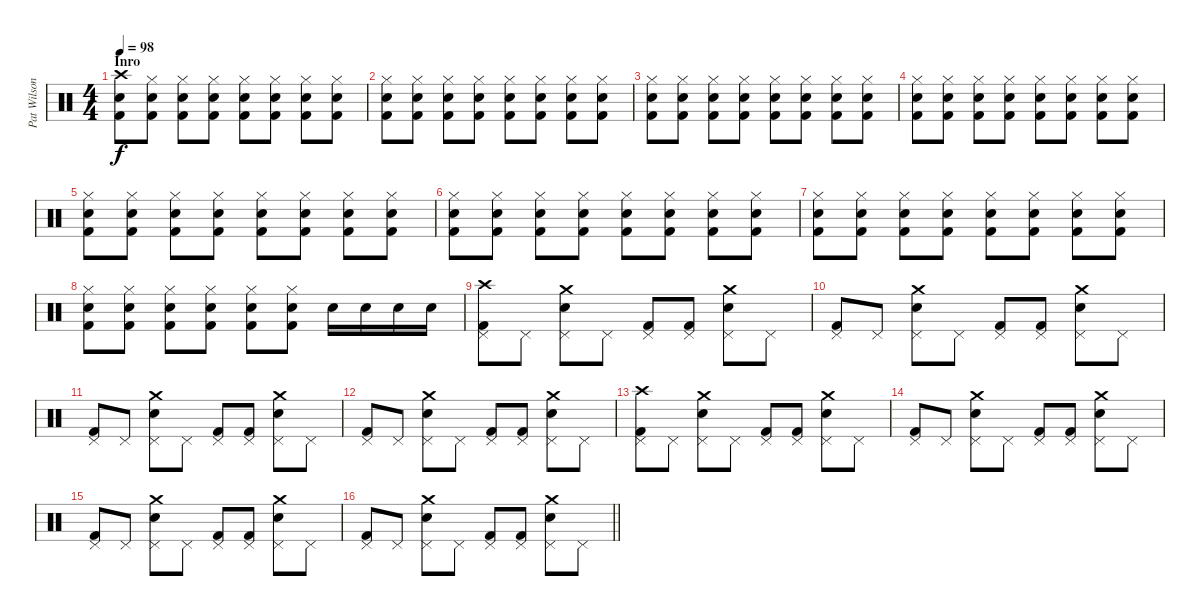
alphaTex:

\track ("Pat Wilson - Drums" "Pat Wilson") {instrument percussion}
\staff {score}
\articulation defaults
\ts (4 4)
\section ("" "Inro")
\tempo 98
\clef neutral
\ks c
("Crash high (hit)" "Electric Snare (hit)" "Kick (hit) 2").8{dy f} ("Hi-Hat (closed)" "Electric Snare (hit)" "Kick (hit) 2").8 ("Hi-Hat (closed)" "Electric Snare (hit)" "Kick (hit) 2").8 ("Hi-Hat (closed)" "Electric Snare (hit)" "Kick (hit) 2").8 ("Hi-Hat (closed)" "Electric Snare (hit)" "Kick (hit) 2").8 ("Hi-Hat (closed)" "Electric Snare (hit)" "Kick (hit) 2").8 ("Hi-Hat (closed)" "Electric Snare (hit)" "Kick (hit) 2").8 ("Hi-Hat (closed)" "Electric Snare (hit)" "Kick (hit) 2").8 |
("Hi-Hat (closed)" "Electric Snare (hit)" "Kick (hit) 2").8 ("Hi-Hat (closed)" "Electric Snare (hit)" "Kick (hit) 2").8 ("Hi-Hat (closed)" "Electric Snare (hit)" "Kick (hit) 2").8 ("Hi-Hat (closed)" "Electric Snare (hit)" "Kick (hit) 2").8 ("Hi-Hat (closed)" "Electric Snare (hit)" "Kick (hit) 2").8 ("Hi-Hat (closed)" "Electric Snare (hit)" "Kick (hit) 2").8 ("Hi-Hat (closed)" "Electric Snare (hit)" "Kick (hit) 2").8 ("Hi-Hat (closed)" "Electric Snare (hit)" "Kick (hit) 2").8 |
("Hi-Hat (closed)" "Electric Snare (hit)" "Kick (hit) 2").8 ("Hi-Hat (closed)" "Electric Snare (hit)" "Kick (hit) 2").8 ("Hi-Hat (closed)" "Electric Snare (hit)" "Kick (hit) 2").8 ("Hi-Hat (closed)" "Electric Snare (hit)" "Kick (hit) 2").8 ("Hi-Hat (closed)" "Electric Snare (hit)" "Kick (hit) 2").8 ("Hi-Hat (closed)" "Electric Snare (hit)" "Kick (hit) 2").8 ("Hi-Hat (closed)" "Electric Snare (hit)" "Kick (hit) 2").8 ("Hi-Hat (closed)" "Electric Snare (hit)" "Kick (hit) 2").8 |
("Hi-Hat (closed)" "Electric Snare (hit)" "Kick (hit) 2").8 ("Hi-Hat (closed)" "Electric Snare (hit)" "Kick (hit) 2").8 ("Hi-Hat (closed)" "Electric Snare (hit)" "Kick (hit) 2").8 ("Hi-Hat (closed)" "Electric Snare (hit)" "Kick (hit) 2").8 ("Hi-Hat (closed)" "Electric Snare (hit)" "Kick (hit) 2").8 ("Hi-Hat (closed)" "Electric Snare (hit)" "Kick (hit) 2").8 ("Hi-Hat (closed)" "Electric Snare (hit)" "Kick (hit) 2").8 ("Hi-Hat (closed)" "Electric Snare (hit)" "Kick (hit) 2").8 |
("Hi-Hat (closed)" "Electric Snare (hit)" "Kick (hit) 2").8 ("Hi-Hat (closed)" "Electric Snare (hit)" "Kick (hit) 2").8 ("Hi-Hat (closed)" "Electric Snare (hit)" "Kick (hit) 2").8 ("Hi-Hat (closed)" "Electric Snare (hit)" "Kick (hit) 2").8 ("Hi-Hat (closed)" "Electric Snare (hit)" "Kick (hit) 2").8 ("Hi-Hat (closed)" "Electric Snare (hit)" "Kick (hit) 2").8 ("Hi-Hat (closed)" "Electric Snare (hit)" "Kick (hit) 2").8 ("Hi-Hat (closed)" "Electric Snare (hit)" "Kick (hit) 2").8 |
("Hi-Hat (closed)" "Electric Snare (hit)" "Kick (hit) 2").8 ("Hi-Hat (closed)" "Electric Snare (hit)" "Kick (hit) 2").8 ("Hi-Hat (closed)" "Electric Snare (hit)" "Kick (hit) 2").8 ("Hi-Hat (closed)" "Electric Snare (hit)" "Kick (hit) 2").8 ("Hi-Hat (closed)" "Electric Snare (hit)" "Kick (hit) 2").8 ("Hi-Hat (closed)" "Electric Snare (hit)" "Kick (hit) 2").8 ("Hi-Hat (closed)" "Electric Snare (hit)" "Kick (hit) 2").8 ("Hi-Hat (closed)" "Electric Snare (hit)" "Kick (hit) 2").8 |
("Hi-Hat (closed)" "Electric Snare (hit)" "Kick (hit) 2").8 ("Hi-Hat (closed)" "Electric Snare (hit)" "Kick (hit) 2").8 ("Hi-Hat (closed)" "Electric Snare (hit)" "Kick (hit) 2").8 ("Hi-Hat (closed)" "Electric Snare (hit)" "Kick (hit) 2").8 ("Hi-Hat (closed)" "Electric Snare (hit)" "Kick (hit) 2").8 ("Hi-Hat (closed)" "Electric Snare (hit)" "Kick (hit) 2").8 ("Hi-Hat (closed)" "Electric Snare (hit)" "Kick (hit) 2").8 ("Hi-Hat (closed)" "Electric Snare (hit)" "Kick (hit) 2").8 |
("Hi-Hat (closed)" "Electric Snare (hit)" "Kick (hit) 2").8 ("Hi-Hat (closed)" "Electric Snare (hit)" "Kick (hit) 2").8 ("Hi-Hat (closed)" "Electric Snare (hit)" "Kick (hit) 2").8 ("Hi-Hat (closed)" "Electric Snare (hit)" "Kick (hit) 2").8 ("Hi-Hat (closed)" "Electric Snare (hit)" "Kick (hit) 2").8 ("Hi-Hat (closed)" "Electric Snare (hit)" "Kick (hit) 2").8 "Electric Snare (hit)".16 "Electric Snare (hit)".16 "Electric Snare (hit)".16 "Electric Snare (hit)".16 |
("Crash high (hit)" "Pedal Hi-Hat (hit)" "Kick (hit) 2").8 "Pedal Hi-Hat (hit)".8 ("Crash medium (hit)" "Pedal Hi-Hat (hit)" "Electric Snare (hit)").8 "Pedal Hi-Hat (hit)".8 ("Pedal Hi-Hat (hit)" "Kick (hit) 2").8 ("Pedal Hi-Hat (hit)" "Kick (hit) 2").8 ("Crash medium (hit)" "Pedal Hi-Hat (hit)" "Electric Snare (hit)").8 "Pedal Hi-Hat (hit)".8 |
("Pedal Hi-Hat (hit)" "Kick (hit) 2").8 "Pedal Hi-Hat (hit)".8 ("Crash medium (hit)" "Pedal Hi-Hat (hit)" "Electric Snare (hit)").8 "Pedal Hi-Hat (hit)".8 ("Pedal Hi-Hat (hit)" "Kick (hit) 2").8 ("Pedal Hi-Hat (hit)" "Kick (hit) 2").8 ("Crash medium (hit)" "Pedal Hi-Hat (hit)" "Electric Snare (hit)").8 "Pedal Hi-Hat (hit)".8 |
("Pedal Hi-Hat (hit)" "Kick (hit) 2").8 "Pedal Hi-Hat (hit)".8 ("Crash medium (hit)" "Pedal Hi-Hat (hit)" "Electric Snare (hit)").8 "Pedal Hi-Hat (hit)".8 ("Pedal Hi-Hat (hit)" "Kick (hit) 2").8 ("Pedal Hi-Hat (hit)" "Kick (hit) 2").8 ("Crash medium (hit)" "Pedal Hi-Hat (hit)" "Electric Snare (hit)").8 "Pedal Hi-Hat (hit)".8 |
("Pedal Hi-Hat (hit)" "Kick (hit) 2").8 "Pedal Hi-Hat (hit)".8 ("Crash medium (hit)" "Pedal Hi-Hat (hit)" "Electric Snare (hit)").8 "Pedal Hi-Hat (hit)".8 ("Pedal Hi-Hat (hit)" "Kick (hit) 2").8 ("Pedal Hi-Hat (hit)" "Kick (hit) 2").8 ("Crash medium (hit)" "Pedal Hi-Hat (hit)" "Electric Snare (hit)").8 "Pedal Hi-Hat (hit)".8 |
("Crash high (hit)" "Pedal Hi-Hat (hit)" "Kick (hit) 2").8 "Pedal Hi-Hat (hit)".8 ("Crash medium (hit)" "Pedal Hi-Hat (hit)" "Electric Snare (hit)").8 "Pedal Hi-Hat (hit)".8 ("Pedal Hi-Hat (hit)" "Kick (hit) 2").8 ("Pedal Hi-Hat (hit)" "Kick (hit) 2").8 ("Crash medium (hit)" "Pedal Hi-Hat (hit)" "Electric Snare (hit)").8 "Pedal Hi-Hat (hit)".8 |
("Pedal Hi-Hat (hit)" "Kick (hit) 2").8 "Pedal Hi-Hat (hit)".8 ("Crash medium (hit)" "Pedal Hi-Hat (hit)" "Electric Snare (hit)").8 "Pedal Hi-Hat (hit)".8 ("Pedal Hi-Hat (hit)" "Kick (hit) 2").8 ("Pedal Hi-Hat (hit)" "Kick (hit) 2").8 ("Crash medium (hit)" "Pedal Hi-Hat (hit)" "Electric Snare (hit)").8 "Pedal Hi-Hat (hit)".8 |
("Pedal Hi-Hat (hit)" "Kick (hit) 2").8 "Pedal Hi-Hat (hit)".8 ("Crash medium (hit)" "Pedal Hi-Hat (hit)" "Electric Snare (hit)").8 "Pedal Hi-Hat (hit)".8 ("Pedal Hi-Hat (hit)" "Kick (hit) 2").8 ("Pedal Hi-Hat (hit)" "Kick (hit) 2").8 ("Crash medium (hit)" "Pedal Hi-Hat (hit)" "Electric Snare (hit)").8 "Pedal Hi-Hat (hit)".8 |
\barLineRight lightlight
("Pedal Hi-Hat (hit)" "Kick (hit) 2").8 "Pedal Hi-Hat (hit)".8 ("Crash medium (hit)" "Pedal Hi-Hat (hit)" "Electric Snare (hit)").8 "Pedal Hi-Hat (hit)".8 ("Pedal Hi-Hat (hit)" "Kick (hit) 2").8 ("Pedal Hi-Hat (hit)" "Kick (hit) 2").8 ("Crash medium (hit)" "Pedal Hi-Hat (hit)" "Electric Snare (hit)").8 "Pedal Hi-Hat (hit)".8
